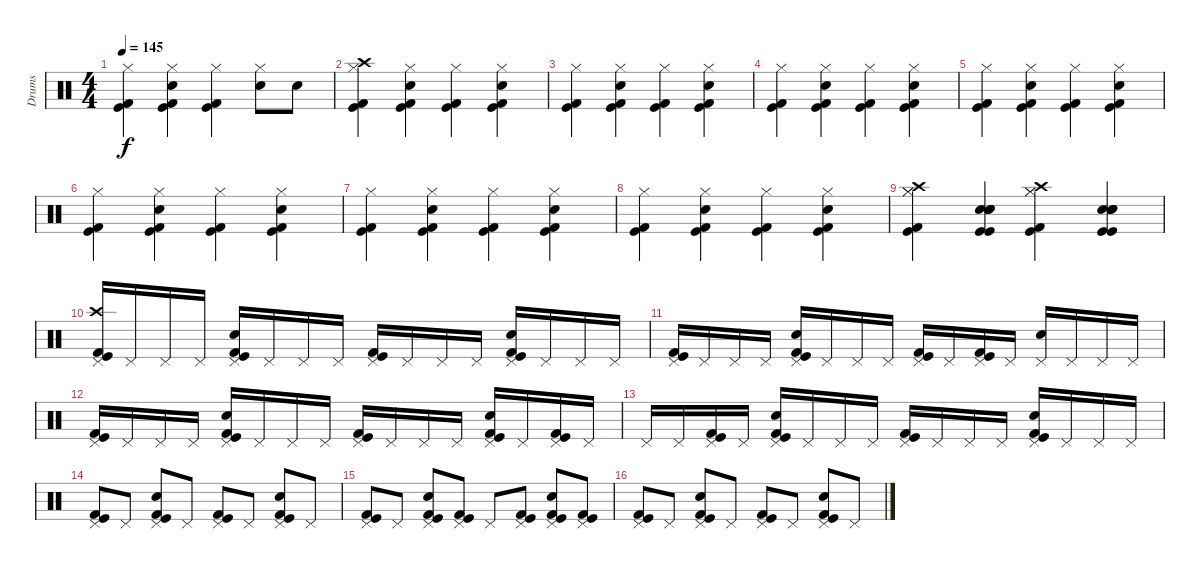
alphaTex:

\track ("Drums" "Drums") {instrument percussion}
\staff {score}
\articulation defaults
\ts (4 4)
\tempo 145
\clef neutral
\ks c
("Hi-Hat (closed)" "Kick (hit) 2" "Kick (hit)").4{dy f} ("Hi-Hat (closed)" "Electric Snare (hit)" "Kick (hit) 2" "Kick (hit)").4 ("Hi-Hat (closed)" "Kick (hit) 2" "Kick (hit)").4 ("Hi-Hat (closed)" "Electric Snare (hit)").8 "Electric Snare (hit)".8 |
("Crash high (hit)" "Hi-Hat (closed)" "Kick (hit) 2" "Kick (hit)").4 ("Hi-Hat (closed)" "Electric Snare (hit)" "Kick (hit) 2" "Kick (hit)").4 ("Hi-Hat (closed)" "Kick (hit) 2" "Kick (hit)").4 ("Electric Snare (hit)" "Hi-Hat (closed)" "Kick (hit) 2" "Kick (hit)").4 |
("Kick (hit) 2" "Hi-Hat (closed)" "Kick (hit)").4 ("Electric Snare (hit)" "Hi-Hat (closed)" "Kick (hit) 2" "Kick (hit)").4 ("Hi-Hat (closed)" "Kick (hit) 2" "Kick (hit)").4 ("Hi-Hat (closed)" "Electric Snare (hit)" "Kick (hit) 2" "Kick (hit)").4 |
("Hi-Hat (closed)" "Kick (hit) 2" "Kick (hit)").4 ("Hi-Hat (closed)" "Electric Snare (hit)" "Kick (hit) 2" "Kick (hit)").4 ("Hi-Hat (closed)" "Kick (hit) 2" "Kick (hit)").4 ("Electric Snare (hit)" "Hi-Hat (closed)" "Kick (hit) 2" "Kick (hit)").4 |
("Kick (hit) 2" "Hi-Hat (closed)" "Kick (hit)").4 ("Electric Snare (hit)" "Hi-Hat (closed)" "Kick (hit) 2" "Kick (hit)").4 ("Hi-Hat (closed)" "Kick (hit) 2" "Kick (hit)").4 ("Hi-Hat (closed)" "Electric Snare (hit)" "Kick (hit) 2" "Kick (hit)").4 |
("Hi-Hat (closed)" "Kick (hit) 2" "Kick (hit)").4 ("Hi-Hat (closed)" "Electric Snare (hit)" "Kick (hit) 2" "Kick (hit)").4 ("Hi-Hat (closed)" "Kick (hit) 2" "Kick (hit)").4 ("Electric Snare (hit)" "Hi-Hat (closed)" "Kick (hit) 2" "Kick (hit)").4 |
("Kick (hit) 2" "Hi-Hat (closed)" "Kick (hit)").4 ("Electric Snare (hit)" "Hi-Hat (closed)" "Kick (hit) 2" "Kick (hit)").4 ("Hi-Hat (closed)" "Kick (hit) 2" "Kick (hit)").4 ("Hi-Hat (closed)" "Electric Snare (hit)" "Kick (hit) 2" "Kick (hit)").4 |
("Hi-Hat (closed)" "Kick (hit) 2" "Kick (hit)").4 ("Hi-Hat (closed)" "Electric Snare (hit)" "Kick (hit) 2" "Kick (hit)").4 ("Hi-Hat (closed)" "Kick (hit) 2" "Kick (hit)").4 ("Electric Snare (hit)" "Hi-Hat (closed)" "Kick (hit) 2" "Kick (hit)").4 |
("Crash high (hit)" "Hi-Hat (closed)" "Hi-Hat (closed)" "Kick (hit)" "Kick (hit) 2").4 ("Electric Snare (hit)" "Electric Snare (hit)" "Electric Snare (hit)" "Snare (hit) 2" "Kick (hit)" "Kick (hit)").4 ("Crash high (hit)" "Hi-Hat (closed)" "Hi-Hat (closed)" "Kick (hit)" "Kick (hit) 2").4 ("Electric Snare (hit)" "Electric Snare (hit)" "Electric Snare (hit)" "Snare (hit) 2" "Kick (hit)" "Kick (hit)").4 |
("Crash high (hit)" "Kick (hit) 2" "Pedal Hi-Hat (hit)" "Kick (hit)").16 "Pedal Hi-Hat (hit)".16 "Pedal Hi-Hat (hit)".16 "Pedal Hi-Hat (hit)".16 ("Pedal Hi-Hat (hit)" "Electric Snare (hit)" "Kick (hit) 2" "Kick (hit)").16 "Pedal Hi-Hat (hit)".16 "Pedal Hi-Hat (hit)".16 "Pedal Hi-Hat (hit)".16 ("Pedal Hi-Hat (hit)" "Kick (hit) 2" "Kick (hit)").16 "Pedal Hi-Hat (hit)".16 "Pedal Hi-Hat (hit)".16 "Pedal Hi-Hat (hit)".16 ("Electric Snare (hit)" "Pedal Hi-Hat (hit)" "Kick (hit) 2" "Kick (hit)").16 "Pedal Hi-Hat (hit)".16 "Pedal Hi-Hat (hit)".16 "Pedal Hi-Hat (hit)".16 |
("Kick (hit) 2" "Pedal Hi-Hat (hit)" "Kick (hit)").16 "Pedal Hi-Hat (hit)".16 "Pedal Hi-Hat (hit)".16 "Pedal Hi-Hat (hit)".16 ("Pedal Hi-Hat (hit)" "Electric Snare (hit)" "Kick (hit) 2" "Kick (hit)").16 "Pedal Hi-Hat (hit)".16 "Pedal Hi-Hat (hit)".16 "Pedal Hi-Hat (hit)".16 ("Pedal Hi-Hat (hit)" "Kick (hit) 2" "Kick (hit)").16 "Pedal Hi-Hat (hit)".16 ("Pedal Hi-Hat (hit)" "Kick (hit) 2" "Kick (hit)").16 "Pedal Hi-Hat (hit)".16 ("Electric Snare (hit)" "Pedal Hi-Hat (hit)").16 "Pedal Hi-Hat (hit)".16 "Pedal Hi-Hat (hit)".16 "Pedal Hi-Hat (hit)".16 |
("Kick (hit) 2" "Pedal Hi-Hat (hit)" "Kick (hit)").16 "Pedal Hi-Hat (hit)".16 "Pedal Hi-Hat (hit)".16 "Pedal Hi-Hat (hit)".16 ("Pedal Hi-Hat (hit)" "Electric Snare (hit)" "Kick (hit) 2" "Kick (hit)").16 "Pedal Hi-Hat (hit)".16 "Pedal Hi-Hat (hit)".16 "Pedal Hi-Hat (hit)".16 ("Pedal Hi-Hat (hit)" "Kick (hit) 2" "Kick (hit)").16 "Pedal Hi-Hat (hit)".16 "Pedal Hi-Hat (hit)".16 "Pedal Hi-Hat (hit)".16 ("Electric Snare (hit)" "Pedal Hi-Hat (hit)" "Kick (hit) 2" "Kick (hit)").16 "Pedal Hi-Hat (hit)".16 ("Kick (hit) 2" "Pedal Hi-Hat (hit)" "Kick (hit)").16 "Pedal Hi-Hat (hit)".16 |
"Pedal Hi-Hat (hit)".16 "Pedal Hi-Hat (hit)".16 ("Pedal Hi-Hat (hit)" "Kick (hit) 2" "Kick (hit)").16 "Pedal Hi-Hat (hit)".16 ("Pedal Hi-Hat (hit)" "Electric Snare (hit)" "Kick (hit) 2" "Kick (hit)").16 "Pedal Hi-Hat (hit)".16 "Pedal Hi-Hat (hit)".16 "Pedal Hi-Hat (hit)".16 ("Pedal Hi-Hat (hit)" "Kick (hit) 2" "Kick (hit)").16 "Pedal Hi-Hat (hit)".16 "Pedal Hi-Hat (hit)".16 "Pedal Hi-Hat (hit)".16 ("Electric Snare (hit)" "Pedal Hi-Hat (hit)" "Kick (hit) 2" "Kick (hit)").16 "Pedal Hi-Hat (hit)".16 "Pedal Hi-Hat (hit)".16 "Pedal Hi-Hat (hit)".16 |
("Kick (hit) 2" "Pedal Hi-Hat (hit)" "Kick (hit)").8 "Pedal Hi-Hat (hit)".8 ("Pedal Hi-Hat (hit)" "Electric Snare (hit)" "Kick (hit) 2" "Kick (hit)").8 "Pedal Hi-Hat (hit)".8 ("Pedal Hi-Hat (hit)" "Kick (hit) 2" "Kick (hit)").8 "Pedal Hi-Hat (hit)".8 ("Pedal Hi-Hat (hit)" "Electric Snare (hit)" "Kick (hit) 2" "Kick (hit)").8 "Pedal Hi-Hat (hit)".8 |
("Kick (hit) 2" "Pedal Hi-Hat (hit)" "Kick (hit)").8 "Pedal Hi-Hat (hit)".8 ("Pedal Hi-Hat (hit)" "Electric Snare (hit)" "Kick (hit) 2" "Kick (hit)").8 ("Kick (hit) 2" "Pedal Hi-Hat (hit)" "Kick (hit)").8 "Pedal Hi-Hat (hit)".8 ("Pedal Hi-Hat (hit)" "Kick (hit) 2" "Kick (hit)").8 ("Electric Snare (hit)" "Pedal Hi-Hat (hit)" "Kick (hit) 2" "Kick (hit)").8 ("Pedal Hi-Hat (hit)" "Kick (hit) 2" "Kick (hit)").8 |
("Kick (hit) 2" "Pedal Hi-Hat (hit)" "Kick (hit)").8 "Pedal Hi-Hat (hit)".8 ("Electric Snare (hit)" "Pedal Hi-Hat (hit)" "Kick (hit) 2" "Kick (hit)").8 "Pedal Hi-Hat (hit)".8 ("Kick (hit) 2" "Pedal Hi-Hat (hit)" "Kick (hit)").8 "Pedal Hi-Hat (hit)".8 ("Electric Snare (hit)" "Pedal Hi-Hat (hit)" "Kick (hit) 2" "Kick (hit)").8 "Pedal Hi-Hat (hit)".8
